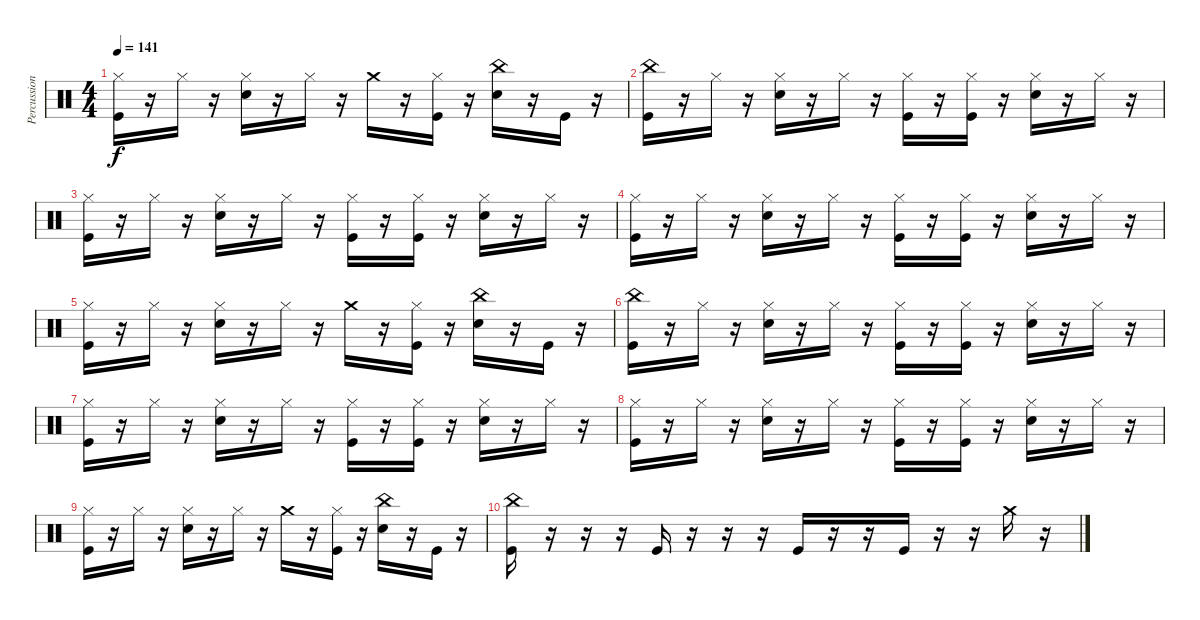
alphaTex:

\track ("Percussion" "Percussion") {instrument percussion}
\staff {score}
\articulation defaults
\ts (4 4)
\tempo 141
\clef neutral
\ks c
("Hi-Hat (closed)" "Kick (hit)").16{dy f} r.16 "Hi-Hat (closed)".16 r.16 ("Hi-Hat (closed)" "Electric Snare (hit)").16 r.16 "Hi-Hat (closed)".16 r.16 "Crash medium (hit)".16 r.16 ("Hi-Hat (closed)" "Kick (hit)").16 r.16 ("China (hit)" "Electric Snare (hit)").16 r.16 "Kick (hit)".16 r.16 |
("China (hit)" "Kick (hit)").16 r.16 "Hi-Hat (closed)".16 r.16 ("Hi-Hat (closed)" "Electric Snare (hit)").16 r.16 "Hi-Hat (closed)".16 r.16 ("Hi-Hat (closed)" "Kick (hit)").16 r.16 ("Hi-Hat (closed)" "Kick (hit)").16 r.16 ("Hi-Hat (closed)" "Electric Snare (hit)").16 r.16 "Hi-Hat (closed)".16 r.16 |
("Hi-Hat (closed)" "Kick (hit)").16 r.16 "Hi-Hat (closed)".16 r.16 ("Hi-Hat (closed)" "Electric Snare (hit)").16 r.16 "Hi-Hat (closed)".16 r.16 ("Hi-Hat (closed)" "Kick (hit)").16 r.16 ("Hi-Hat (closed)" "Kick (hit)").16 r.16 ("Hi-Hat (closed)" "Electric Snare (hit)").16 r.16 "Hi-Hat (closed)".16 r.16 |
("Hi-Hat (closed)" "Kick (hit)").16 r.16 "Hi-Hat (closed)".16 r.16 ("Hi-Hat (closed)" "Electric Snare (hit)").16 r.16 "Hi-Hat (closed)".16 r.16 ("Hi-Hat (closed)" "Kick (hit)").16 r.16 ("Hi-Hat (closed)" "Kick (hit)").16 r.16 ("Hi-Hat (closed)" "Electric Snare (hit)").16 r.16 "Hi-Hat (closed)".16 r.16 |
("Hi-Hat (closed)" "Kick (hit)").16 r.16 "Hi-Hat (closed)".16 r.16 ("Hi-Hat (closed)" "Electric Snare (hit)").16 r.16 "Hi-Hat (closed)".16 r.16 "Crash medium (hit)".16 r.16 ("Hi-Hat (closed)" "Kick (hit)").16 r.16 ("China (hit)" "Electric Snare (hit)").16 r.16 "Kick (hit)".16 r.16 |
("China (hit)" "Kick (hit)").16 r.16 "Hi-Hat (closed)".16 r.16 ("Hi-Hat (closed)" "Electric Snare (hit)").16 r.16 "Hi-Hat (closed)".16 r.16 ("Hi-Hat (closed)" "Kick (hit)").16 r.16 ("Hi-Hat (closed)" "Kick (hit)").16 r.16 ("Hi-Hat (closed)" "Electric Snare (hit)").16 r.16 "Hi-Hat (closed)".16 r.16 |
("Hi-Hat (closed)" "Kick (hit)").16 r.16 "Hi-Hat (closed)".16 r.16 ("Hi-Hat (closed)" "Electric Snare (hit)").16 r.16 "Hi-Hat (closed)".16 r.16 ("Hi-Hat (closed)" "Kick (hit)").16 r.16 ("Hi-Hat (closed)" "Kick (hit)").16 r.16 ("Hi-Hat (closed)" "Electric Snare (hit)").16 r.16 "Hi-Hat (closed)".16 r.16 |
("Hi-Hat (closed)" "Kick (hit)").16 r.16 "Hi-Hat (closed)".16 r.16 ("Hi-Hat (closed)" "Electric Snare (hit)").16 r.16 "Hi-Hat (closed)".16 r.16 ("Hi-Hat (closed)" "Kick (hit)").16 r.16 ("Hi-Hat (closed)" "Kick (hit)").16 r.16 ("Hi-Hat (closed)" "Electric Snare (hit)").16 r.16 "Hi-Hat (closed)".16 r.16 |
("Hi-Hat (closed)" "Kick (hit)").16 r.16 "Hi-Hat (closed)".16 r.16 ("Hi-Hat (closed)" "Electric Snare (hit)").16 r.16 "Hi-Hat (closed)".16 r.16 "Crash medium (hit)".16 r.16 ("Hi-Hat (closed)" "Kick (hit)").16 r.16 ("China (hit)" "Electric Snare (hit)").16 r.16 "Kick (hit)".16 r.16 |
("China (hit)" "Kick (hit)").16 r.16 r.16 r.16 "Kick (hit)".16 r.16 r.16 r.16 "Kick (hit)".16 r.16 r.16 "Kick (hit)".16 r.16 r.16 "Crash medium (hit)".16 r.16
